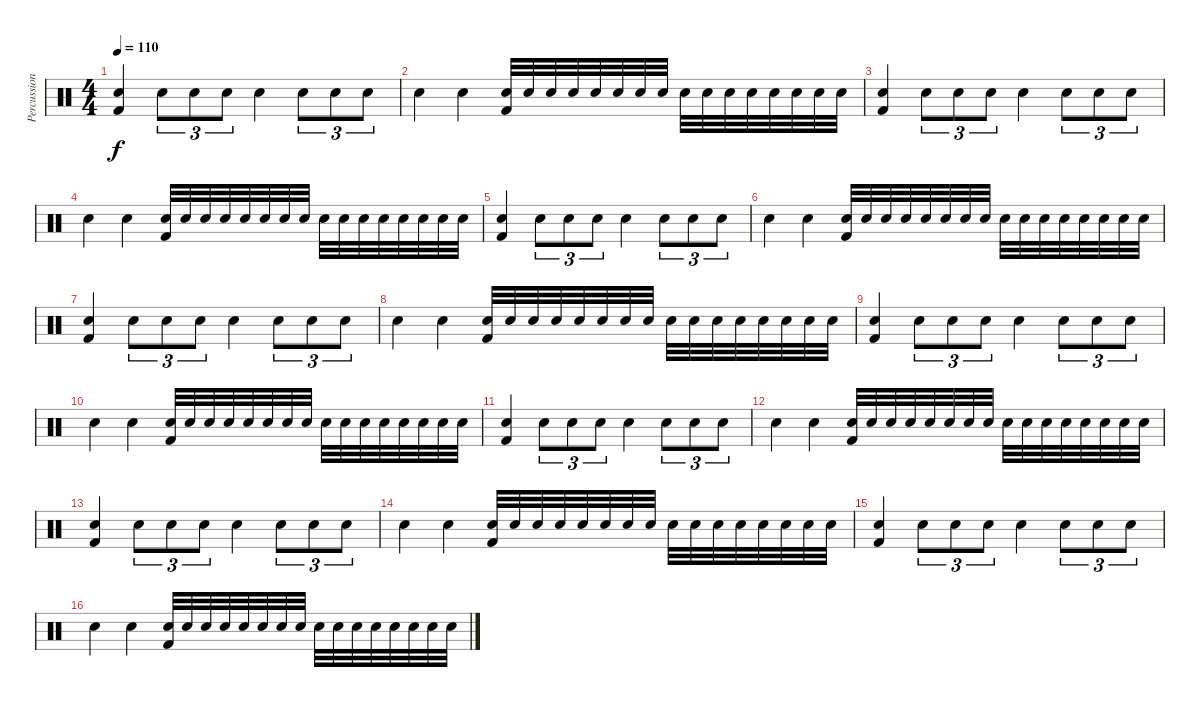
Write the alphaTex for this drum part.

\track ("Percussion" "Percussion") {instrument percussion}
\staff {score}
\articulation defaults
\ts (4 4)
\tempo 110
\clef neutral
\ks c
("Electric Snare (hit)" "Kick (hit) 2").4{dy f} "Electric Snare (hit)".8{tu (3 2)} "Electric Snare (hit)".8{tu (3 2)} "Electric Snare (hit)".8{tu (3 2)} "Electric Snare (hit)".4 "Electric Snare (hit)".8{tu (3 2)} "Electric Snare (hit)".8{tu (3 2)} "Electric Snare (hit)".8{tu (3 2)} |
"Electric Snare (hit)".4 "Electric Snare (hit)".4 ("Electric Snare (hit)" "Kick (hit) 2").32 "Electric Snare (hit)".32 "Electric Snare (hit)".32 "Electric Snare (hit)".32 "Electric Snare (hit)".32 "Electric Snare (hit)".32 "Electric Snare (hit)".32 "Electric Snare (hit)".32 "Electric Snare (hit)".32 "Electric Snare (hit)".32 "Electric Snare (hit)".32 "Electric Snare (hit)".32 "Electric Snare (hit)".32 "Electric Snare (hit)".32 "Electric Snare (hit)".32 "Electric Snare (hit)".32 |
("Electric Snare (hit)" "Kick (hit) 2").4 "Electric Snare (hit)".8{tu (3 2)} "Electric Snare (hit)".8{tu (3 2)} "Electric Snare (hit)".8{tu (3 2)} "Electric Snare (hit)".4 "Electric Snare (hit)".8{tu (3 2)} "Electric Snare (hit)".8{tu (3 2)} "Electric Snare (hit)".8{tu (3 2)} |
"Electric Snare (hit)".4 "Electric Snare (hit)".4 ("Electric Snare (hit)" "Kick (hit) 2").32 "Electric Snare (hit)".32 "Electric Snare (hit)".32 "Electric Snare (hit)".32 "Electric Snare (hit)".32 "Electric Snare (hit)".32 "Electric Snare (hit)".32 "Electric Snare (hit)".32 "Electric Snare (hit)".32 "Electric Snare (hit)".32 "Electric Snare (hit)".32 "Electric Snare (hit)".32 "Electric Snare (hit)".32 "Electric Snare (hit)".32 "Electric Snare (hit)".32 "Electric Snare (hit)".32 |
("Electric Snare (hit)" "Kick (hit) 2").4 "Electric Snare (hit)".8{tu (3 2)} "Electric Snare (hit)".8{tu (3 2)} "Electric Snare (hit)".8{tu (3 2)} "Electric Snare (hit)".4 "Electric Snare (hit)".8{tu (3 2)} "Electric Snare (hit)".8{tu (3 2)} "Electric Snare (hit)".8{tu (3 2)} |
"Electric Snare (hit)".4 "Electric Snare (hit)".4 ("Electric Snare (hit)" "Kick (hit) 2").32 "Electric Snare (hit)".32 "Electric Snare (hit)".32 "Electric Snare (hit)".32 "Electric Snare (hit)".32 "Electric Snare (hit)".32 "Electric Snare (hit)".32 "Electric Snare (hit)".32 "Electric Snare (hit)".32 "Electric Snare (hit)".32 "Electric Snare (hit)".32 "Electric Snare (hit)".32 "Electric Snare (hit)".32 "Electric Snare (hit)".32 "Electric Snare (hit)".32 "Electric Snare (hit)".32 |
("Electric Snare (hit)" "Kick (hit) 2").4 "Electric Snare (hit)".8{tu (3 2)} "Electric Snare (hit)".8{tu (3 2)} "Electric Snare (hit)".8{tu (3 2)} "Electric Snare (hit)".4 "Electric Snare (hit)".8{tu (3 2)} "Electric Snare (hit)".8{tu (3 2)} "Electric Snare (hit)".8{tu (3 2)} |
"Electric Snare (hit)".4 "Electric Snare (hit)".4 ("Electric Snare (hit)" "Kick (hit) 2").32 "Electric Snare (hit)".32 "Electric Snare (hit)".32 "Electric Snare (hit)".32 "Electric Snare (hit)".32 "Electric Snare (hit)".32 "Electric Snare (hit)".32 "Electric Snare (hit)".32 "Electric Snare (hit)".32 "Electric Snare (hit)".32 "Electric Snare (hit)".32 "Electric Snare (hit)".32 "Electric Snare (hit)".32 "Electric Snare (hit)".32 "Electric Snare (hit)".32 "Electric Snare (hit)".32 |
("Electric Snare (hit)" "Kick (hit) 2").4 "Electric Snare (hit)".8{tu (3 2)} "Electric Snare (hit)".8{tu (3 2)} "Electric Snare (hit)".8{tu (3 2)} "Electric Snare (hit)".4 "Electric Snare (hit)".8{tu (3 2)} "Electric Snare (hit)".8{tu (3 2)} "Electric Snare (hit)".8{tu (3 2)} |
"Electric Snare (hit)".4 "Electric Snare (hit)".4 ("Electric Snare (hit)" "Kick (hit) 2").32 "Electric Snare (hit)".32 "Electric Snare (hit)".32 "Electric Snare (hit)".32 "Electric Snare (hit)".32 "Electric Snare (hit)".32 "Electric Snare (hit)".32 "Electric Snare (hit)".32 "Electric Snare (hit)".32 "Electric Snare (hit)".32 "Electric Snare (hit)".32 "Electric Snare (hit)".32 "Electric Snare (hit)".32 "Electric Snare (hit)".32 "Electric Snare (hit)".32 "Electric Snare (hit)".32 |
("Electric Snare (hit)" "Kick (hit) 2").4 "Electric Snare (hit)".8{tu (3 2)} "Electric Snare (hit)".8{tu (3 2)} "Electric Snare (hit)".8{tu (3 2)} "Electric Snare (hit)".4 "Electric Snare (hit)".8{tu (3 2)} "Electric Snare (hit)".8{tu (3 2)} "Electric Snare (hit)".8{tu (3 2)} |
"Electric Snare (hit)".4 "Electric Snare (hit)".4 ("Electric Snare (hit)" "Kick (hit) 2").32 "Electric Snare (hit)".32 "Electric Snare (hit)".32 "Electric Snare (hit)".32 "Electric Snare (hit)".32 "Electric Snare (hit)".32 "Electric Snare (hit)".32 "Electric Snare (hit)".32 "Electric Snare (hit)".32 "Electric Snare (hit)".32 "Electric Snare (hit)".32 "Electric Snare (hit)".32 "Electric Snare (hit)".32 "Electric Snare (hit)".32 "Electric Snare (hit)".32 "Electric Snare (hit)".32 |
("Electric Snare (hit)" "Kick (hit) 2").4 "Electric Snare (hit)".8{tu (3 2)} "Electric Snare (hit)".8{tu (3 2)} "Electric Snare (hit)".8{tu (3 2)} "Electric Snare (hit)".4 "Electric Snare (hit)".8{tu (3 2)} "Electric Snare (hit)".8{tu (3 2)} "Electric Snare (hit)".8{tu (3 2)} |
"Electric Snare (hit)".4 "Electric Snare (hit)".4 ("Electric Snare (hit)" "Kick (hit) 2").32 "Electric Snare (hit)".32 "Electric Snare (hit)".32 "Electric Snare (hit)".32 "Electric Snare (hit)".32 "Electric Snare (hit)".32 "Electric Snare (hit)".32 "Electric Snare (hit)".32 "Electric Snare (hit)".32 "Electric Snare (hit)".32 "Electric Snare (hit)".32 "Electric Snare (hit)".32 "Electric Snare (hit)".32 "Electric Snare (hit)".32 "Electric Snare (hit)".32 "Electric Snare (hit)".32 |
("Electric Snare (hit)" "Kick (hit) 2").4 "Electric Snare (hit)".8{tu (3 2)} "Electric Snare (hit)".8{tu (3 2)} "Electric Snare (hit)".8{tu (3 2)} "Electric Snare (hit)".4 "Electric Snare (hit)".8{tu (3 2)} "Electric Snare (hit)".8{tu (3 2)} "Electric Snare (hit)".8{tu (3 2)} |
"Electric Snare (hit)".4 "Electric Snare (hit)".4 ("Electric Snare (hit)" "Kick (hit) 2").32 "Electric Snare (hit)".32 "Electric Snare (hit)".32 "Electric Snare (hit)".32 "Electric Snare (hit)".32 "Electric Snare (hit)".32 "Electric Snare (hit)".32 "Electric Snare (hit)".32 "Electric Snare (hit)".32 "Electric Snare (hit)".32 "Electric Snare (hit)".32 "Electric Snare (hit)".32 "Electric Snare (hit)".32 "Electric Snare (hit)".32 "Electric Snare (hit)".32 "Electric Snare (hit)".32
